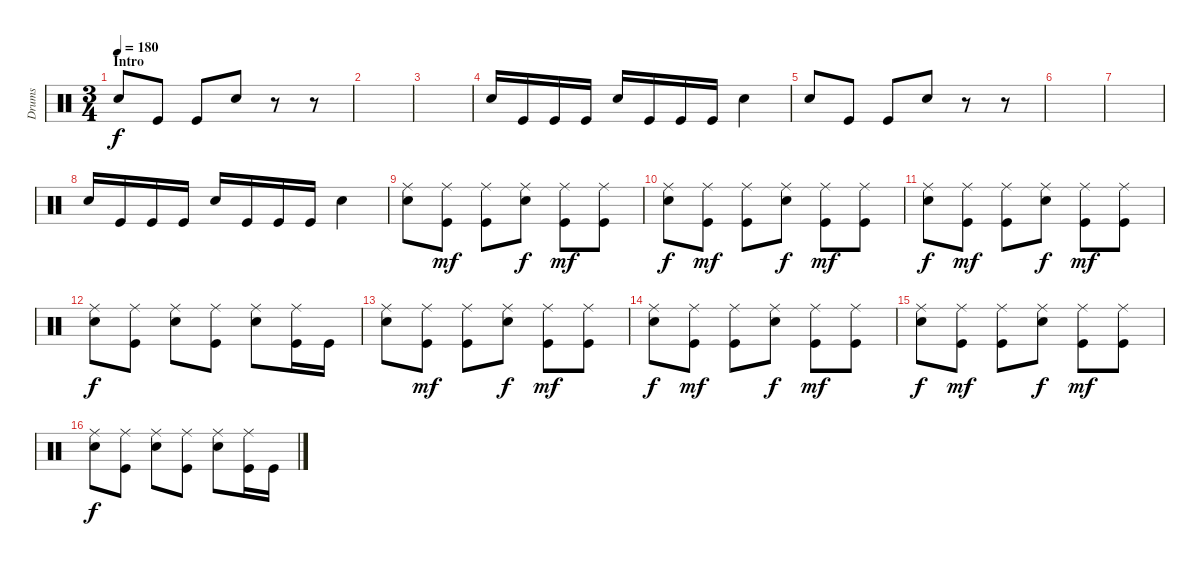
\track ("Drums" "Drums") {instrument percussion}
\staff {score}
\articulation defaults
\ts (3 4)
\section ("" "Intro")
\tempo 180
\clef neutral
\ks c "Snare (hit) 2".8{dy f} "Kick (hit)".8 "Kick (hit)".8 "Snare (hit) 2".8
r.8 r.8 |
|
|
"Snare (hit) 2".16 "Kick (hit)".16 "Kick (hit)".16 "Kick (hit)".16 "Snare (hit) 2".16 "Kick (hit)".16 "Kick (hit)".16 "Kick (hit)".16 "Snare (hit) 2".4 |
"Snare (hit) 2".8 "Kick (hit)".8 "Kick (hit)".8 "Snare (hit) 2".8 r.8 r.8 |
|
|
"Snare (hit) 2".16 "Kick (hit)".16 "Kick (hit)".16 "Kick (hit)".16 "Snare (hit) 2".16 "Kick (hit)".16 "Kick (hit)".16 "Kick (hit)".16 "Snare (hit) 2".4 |
("Ride (middle)" "Snare (hit) 2").8 ("Ride (middle)" "Kick (hit)").8{dy mf} ("Ride (middle)" "Kick (hit)").8 ("Ride (middle)" "Snare (hit) 2").8{dy f} ("Ride (middle)" "Kick (hit)").8{dy mf} ("Ride (middle)" "Kick (hit)").8 |
("Ride (middle)" "Snare (hit) 2").8{dy f} ("Ride (middle)" "Kick (hit)").8{dy mf} ("Ride (middle)" "Kick (hit)").8 ("Ride (middle)" "Snare (hit) 2").8{dy f} ("Ride (middle)" "Kick (hit)").8{dy mf} ("Ride (middle)" "Kick (hit)").8 |
("Ride (middle)" "Snare (hit) 2").8{dy f} ("Ride (middle)" "Kick (hit)").8{dy mf} ("Ride (middle)" "Kick (hit)").8 ("Ride (middle)" "Snare (hit) 2").8{dy f} ("Ride (middle)" "Kick (hit)").8{dy mf} ("Ride (middle)" "Kick (hit)").8 |
("Ride (middle)" "Snare (hit) 2").8{dy f} ("Ride (middle)" "Kick (hit)").8 ("Ride (middle)" "Snare (hit) 2").8 ("Ride (middle)" "Kick (hit)").8 ("Ride (middle)" "Snare (hit) 2").8 ("Ride (middle)" "Kick (hit)").16 "Kick (hit)".16 |
("Ride (middle)" "Snare (hit) 2").8 ("Ride (middle)" "Kick (hit)").8{dy mf} ("Ride (middle)" "Kick (hit)").8 ("Ride (middle)" "Snare (hit) 2").8{dy f} ("Ride (middle)" "Kick (hit)").8{dy mf} ("Ride (middle)" "Kick (hit)").8 |
("Ride (middle)" "Snare (hit) 2").8{dy f} ("Ride (middle)" "Kick (hit)").8{dy mf} ("Ride (middle)" "Kick (hit)").8 ("Ride (middle)" "Snare (hit) 2").8{dy f} ("Ride (middle)" "Kick (hit)").8{dy mf} ("Ride (middle)" "Kick (hit)").8 |
("Ride (middle)" "Snare (hit) 2").8{dy f} ("Ride (middle)" "Kick (hit)").8{dy mf} ("Ride (middle)" "Kick (hit)").8 ("Ride (middle)" "Snare (hit) 2").8{dy f} ("Ride (middle)" "Kick (hit)").8{dy mf} ("Ride (middle)" "Kick (hit)").8 |
("Ride (middle)" "Snare (hit) 2").8{dy f} ("Ride (middle)" "Kick (hit)").8 ("Ride (middle)" "Snare (hit) 2").8 ("Ride (middle)" "Kick (hit)").8 ("Ride (middle)" "Snare (hit) 2").8 ("Ride (middle)" "Kick (hit)").16 "Kick (hit)".16
